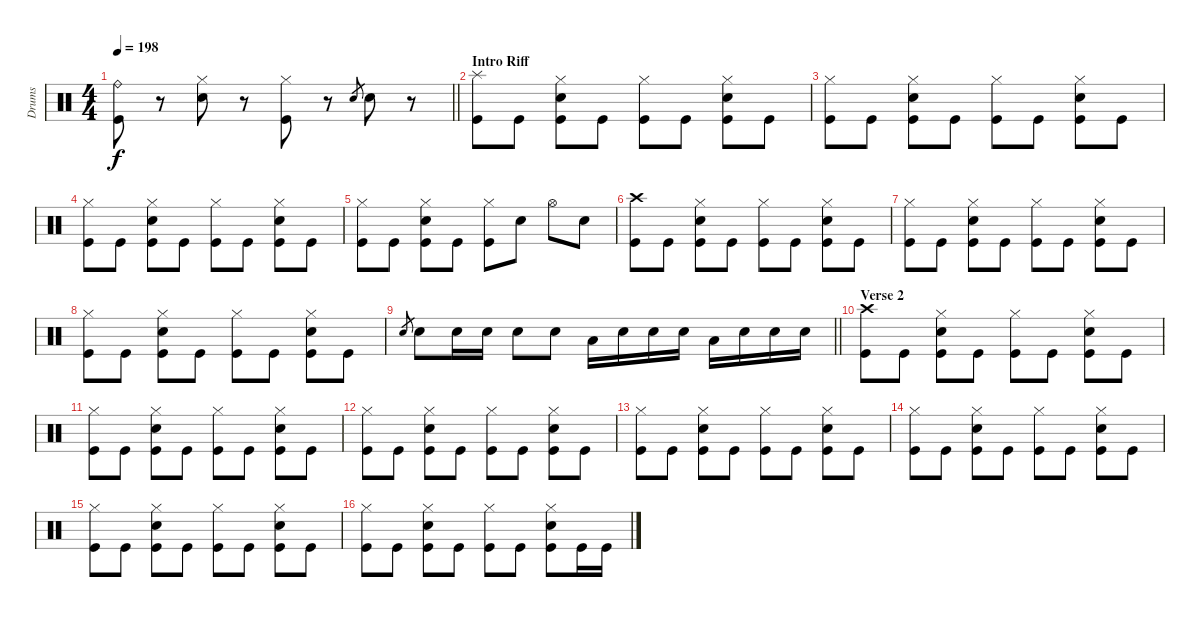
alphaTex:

\track ("Drums" "Drums") {instrument percussion}
\staff {score}
\articulation defaults
\ts (4 4)
\tempo 198
\clef neutral
\barLineRight lightlight
\ks c
("Ride (bell)" "Kick (hit)").8{dy f} r.8 ("Electric Snare (hit)" "Hi-Hat (closed)").8 r.8 ("Hi-Hat (closed)" "Kick (hit)").8 r.8 "Electric Snare (hit)".8{gr} "Electric Snare (hit)".8 r.8 |
\section ("" "Intro Riff")
("Splash (hit)" "Kick (hit)").8 "Kick (hit)".8 ("Hi-Hat (closed)" "Electric Snare (hit)" "Kick (hit)").8 "Kick (hit)".8 ("Hi-Hat (closed)" "Kick (hit)").8 "Kick (hit)".8 ("Hi-Hat (closed)" "Electric Snare (hit)" "Kick (hit)").8 "Kick (hit)".8 |
("Hi-Hat (closed)" "Kick (hit)").8 "Kick (hit)".8 ("Hi-Hat (closed)" "Electric Snare (hit)" "Kick (hit)").8 "Kick (hit)".8 ("Hi-Hat (closed)" "Kick (hit)").8 "Kick (hit)".8 ("Hi-Hat (closed)" "Electric Snare (hit)" "Kick (hit)").8 "Kick (hit)".8 |
("Hi-Hat (closed)" "Kick (hit)").8 "Kick (hit)".8 ("Hi-Hat (closed)" "Electric Snare (hit)" "Kick (hit)").8 "Kick (hit)".8 ("Hi-Hat (closed)" "Kick (hit)").8 "Kick (hit)".8 ("Hi-Hat (closed)" "Electric Snare (hit)" "Kick (hit)").8 "Kick (hit)".8 |
("Hi-Hat (closed)" "Kick (hit)").8 "Kick (hit)".8 ("Hi-Hat (closed)" "Electric Snare (hit)" "Kick (hit)").8 "Kick (hit)".8 ("Hi-Hat (closed)" "Kick (hit)").8 "Electric Snare (hit)".8 "Hi-Hat (open)".8 "Electric Snare (hit)".8 |
("Crash high (hit)" "Kick (hit)").8 "Kick (hit)".8 ("Hi-Hat (closed)" "Electric Snare (hit)" "Kick (hit)").8 "Kick (hit)".8 ("Hi-Hat (closed)" "Kick (hit)").8 "Kick (hit)".8 ("Hi-Hat (closed)" "Electric Snare (hit)" "Kick (hit)").8 "Kick (hit)".8 |
("Hi-Hat (closed)" "Kick (hit)").8 "Kick (hit)".8 ("Hi-Hat (closed)" "Electric Snare (hit)" "Kick (hit)").8 "Kick (hit)".8 ("Hi-Hat (closed)" "Kick (hit)").8 "Kick (hit)".8 ("Hi-Hat (closed)" "Electric Snare (hit)" "Kick (hit)").8 "Kick (hit)".8 |
("Hi-Hat (closed)" "Kick (hit)").8 "Kick (hit)".8 ("Hi-Hat (closed)" "Electric Snare (hit)" "Kick (hit)").8 "Kick (hit)".8 ("Hi-Hat (closed)" "Kick (hit)").8 "Kick (hit)".8 ("Hi-Hat (closed)" "Electric Snare (hit)" "Kick (hit)").8 "Kick (hit)".8 |
\barLineRight lightlight "Electric Snare (hit)".8{gr} "Electric Snare (hit)".8 "Electric Snare (hit)".16 "Electric Snare (hit)".16 "Electric Snare (hit)".8 "Electric Snare (hit)".8 "Low Tom (hit)".16 "Electric Snare (hit)".16 "Electric Snare (hit)".16 "Electric Snare (hit)".16 "Low Tom (hit)".16 "Electric Snare (hit)".16 "Electric Snare (hit)".16 "Electric Snare (hit)".16
|
\section ("" "Verse 2")
("Crash high (hit)" "Kick (hit)").8 "Kick (hit)".8 ("Hi-Hat (closed)" "Electric Snare (hit)" "Kick (hit)").8 "Kick (hit)".8 ("Hi-Hat (closed)" "Kick (hit)").8 "Kick (hit)".8 ("Hi-Hat (closed)" "Electric Snare (hit)" "Kick (hit)").8 "Kick (hit)".8 |
("Hi-Hat (closed)" "Kick (hit)").8 "Kick (hit)".8 ("Hi-Hat (closed)" "Electric Snare (hit)" "Kick (hit)").8 "Kick (hit)".8 ("Hi-Hat (closed)" "Kick (hit)").8 "Kick (hit)".8 ("Hi-Hat (closed)" "Electric Snare (hit)" "Kick (hit)").8 "Kick (hit)".8 |
("Hi-Hat (closed)" "Kick (hit)").8 "Kick (hit)".8 ("Hi-Hat (closed)" "Electric Snare (hit)" "Kick (hit)").8 "Kick (hit)".8 ("Hi-Hat (closed)" "Kick (hit)").8 "Kick (hit)".8 ("Hi-Hat (closed)" "Electric Snare (hit)" "Kick (hit)").8 "Kick (hit)".8 |
("Hi-Hat (closed)" "Kick (hit)").8 "Kick (hit)".8 ("Hi-Hat (closed)" "Electric Snare (hit)" "Kick (hit)").8 "Kick (hit)".8 ("Hi-Hat (closed)" "Kick (hit)").8 "Kick (hit)".8 ("Hi-Hat (closed)" "Electric Snare (hit)" "Kick (hit)").8 "Kick (hit)".8 |
("Hi-Hat (closed)" "Kick (hit)").8 "Kick (hit)".8 ("Hi-Hat (closed)" "Electric Snare (hit)" "Kick (hit)").8 "Kick (hit)".8 ("Hi-Hat (closed)" "Kick (hit)").8 "Kick (hit)".8 ("Hi-Hat (closed)" "Electric Snare (hit)" "Kick (hit)").8 "Kick (hit)".8 |
("Hi-Hat (closed)" "Kick (hit)").8 "Kick (hit)".8 ("Hi-Hat (closed)" "Electric Snare (hit)" "Kick (hit)").8 "Kick (hit)".8 ("Hi-Hat (closed)" "Kick (hit)").8 "Kick (hit)".8 ("Hi-Hat (closed)" "Electric Snare (hit)" "Kick (hit)").8 "Kick (hit)".8 |
("Hi-Hat (closed)" "Kick (hit)").8 "Kick (hit)".8 ("Hi-Hat (closed)" "Electric Snare (hit)" "Kick (hit)").8 "Kick (hit)".8 ("Hi-Hat (closed)" "Kick (hit)").8 "Kick (hit)".8 ("Hi-Hat (closed)" "Electric Snare (hit)" "Kick (hit)").8 "Kick (hit)".16 "Kick (hit)".16
